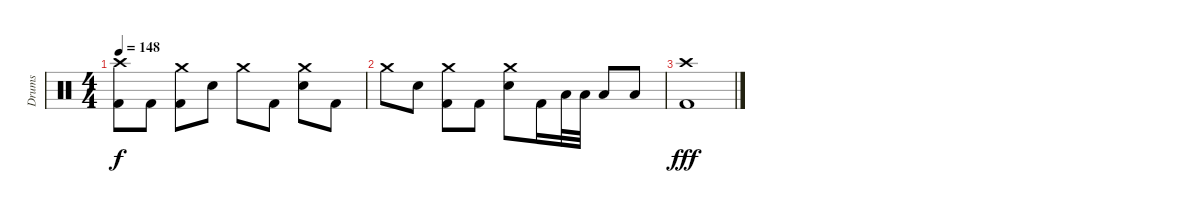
\track ("Drums" "Drums") {instrument percussion}
\staff {score}
\articulation defaults
\ts (4 4)
\tempo 148
\clef neutral
\ks c
("Crash high (hit)" "Kick (hit) 2").8{dy f} "Kick (hit) 2".8 ("Crash medium (hit)" "Kick (hit) 2").8 "Electric Snare (hit)".8 "Crash medium (hit)".8 "Kick (hit) 2".8 ("Crash medium (hit)" "Electric Snare (hit)").8 "Kick (hit) 2".8 |
"Crash medium (hit)".8 "Electric Snare (hit)".8 ("Crash medium (hit)" "Kick (hit) 2").8 "Kick (hit) 2".8 ("Crash medium (hit)" "Electric Snare (hit)").8 "Kick (hit) 2".16 "Low Tom (hit)".32 "Low Tom (hit)".32 "Low Tom (hit)".8 "Low Tom (hit)".8 |
("Crash high (hit)" "Kick (hit) 2").1{dy fff}
